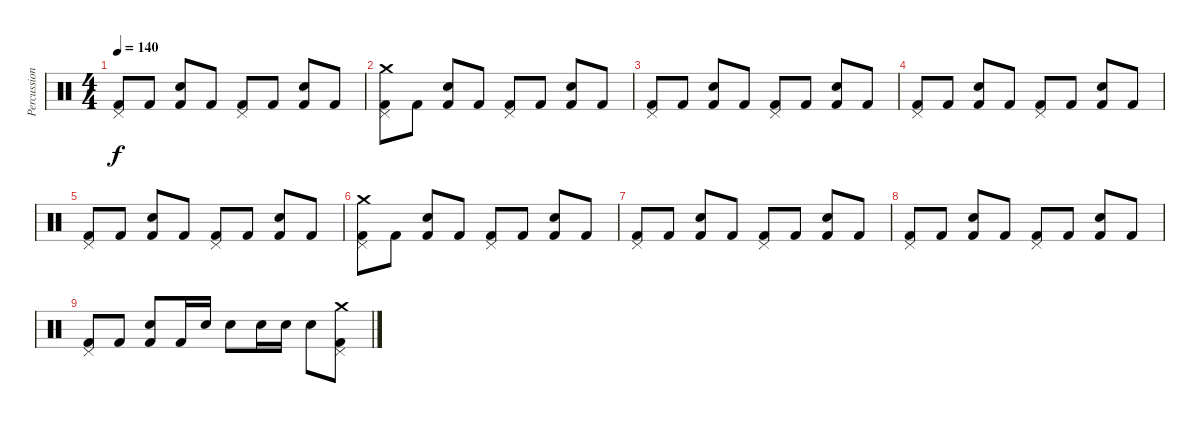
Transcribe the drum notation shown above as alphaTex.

\track ("Percussion" "Percussion") {instrument percussion}
\staff {score}
\articulation defaults
\ts (4 4)
\tempo 140
\clef neutral
\ks c
("Kick (hit) 2" "Pedal Hi-Hat (hit)").8{dy f} "Kick (hit) 2".8 ("Kick (hit) 2" "Electric Snare (hit)").8 "Kick (hit) 2".8 ("Kick (hit) 2" "Pedal Hi-Hat (hit)").8 "Kick (hit) 2".8 ("Kick (hit) 2" "Electric Snare (hit)").8 "Kick (hit) 2".8 |
("Kick (hit) 2" "Pedal Hi-Hat (hit)" "Crash medium (hit)").8 "Kick (hit) 2".8 ("Kick (hit) 2" "Electric Snare (hit)").8 "Kick (hit) 2".8 ("Kick (hit) 2" "Pedal Hi-Hat (hit)").8 "Kick (hit) 2".8 ("Kick (hit) 2" "Electric Snare (hit)").8 "Kick (hit) 2".8 |
("Kick (hit) 2" "Pedal Hi-Hat (hit)").8 "Kick (hit) 2".8 ("Kick (hit) 2" "Electric Snare (hit)").8 "Kick (hit) 2".8 ("Kick (hit) 2" "Pedal Hi-Hat (hit)").8 "Kick (hit) 2".8 ("Kick (hit) 2" "Electric Snare (hit)").8 "Kick (hit) 2".8 |
("Kick (hit) 2" "Pedal Hi-Hat (hit)").8 "Kick (hit) 2".8 ("Kick (hit) 2" "Electric Snare (hit)").8 "Kick (hit) 2".8 ("Kick (hit) 2" "Pedal Hi-Hat (hit)").8 "Kick (hit) 2".8 ("Kick (hit) 2" "Electric Snare (hit)").8 "Kick (hit) 2".8 |
("Kick (hit) 2" "Pedal Hi-Hat (hit)").8 "Kick (hit) 2".8 ("Kick (hit) 2" "Electric Snare (hit)").8 "Kick (hit) 2".8 ("Kick (hit) 2" "Pedal Hi-Hat (hit)").8 "Kick (hit) 2".8 ("Kick (hit) 2" "Electric Snare (hit)").8 "Kick (hit) 2".8 |
("Kick (hit) 2" "Pedal Hi-Hat (hit)" "Crash medium (hit)").8 "Kick (hit) 2".8 ("Kick (hit) 2" "Electric Snare (hit)").8 "Kick (hit) 2".8 ("Kick (hit) 2" "Pedal Hi-Hat (hit)").8 "Kick (hit) 2".8 ("Kick (hit) 2" "Electric Snare (hit)").8 "Kick (hit) 2".8 |
("Kick (hit) 2" "Pedal Hi-Hat (hit)").8 "Kick (hit) 2".8 ("Kick (hit) 2" "Electric Snare (hit)").8 "Kick (hit) 2".8 ("Kick (hit) 2" "Pedal Hi-Hat (hit)").8 "Kick (hit) 2".8 ("Kick (hit) 2" "Electric Snare (hit)").8 "Kick (hit) 2".8 |
("Kick (hit) 2" "Pedal Hi-Hat (hit)").8 "Kick (hit) 2".8 ("Kick (hit) 2" "Electric Snare (hit)").8 "Kick (hit) 2".8 ("Kick (hit) 2" "Pedal Hi-Hat (hit)").8 "Kick (hit) 2".8 ("Kick (hit) 2" "Electric Snare (hit)").8 "Kick (hit) 2".8 |
("Kick (hit) 2" "Pedal Hi-Hat (hit)").8 "Kick (hit) 2".8 ("Kick (hit) 2" "Electric Snare (hit)").8 "Kick (hit) 2".16 "Electric Snare (hit)".16 "Electric Snare (hit)".8 "Electric Snare (hit)".16 "Electric Snare (hit)".16 "Electric Snare (hit)".8 ("Kick (hit) 2" "Pedal Hi-Hat (hit)" "Crash medium (hit)").8
